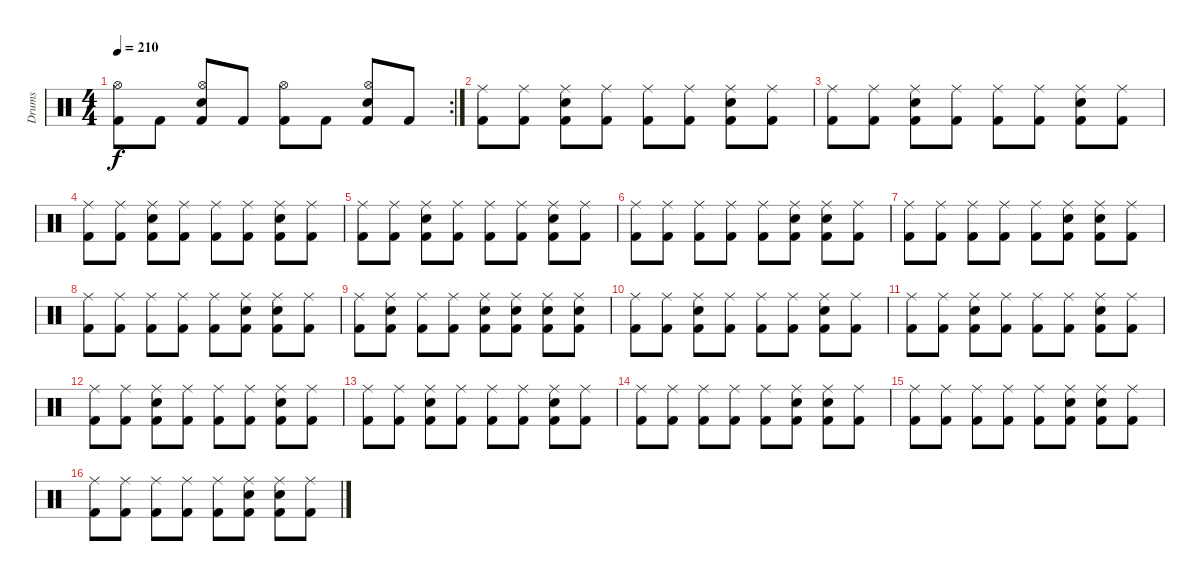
\track ("Drums" "Drums") {instrument percussion}
\staff {score}
\articulation defaults
\rc 2
\ts (4 4)
\tempo 210
\clef neutral
\ks c
("Kick (hit) 2" "Hi-Hat (open)").8{dy f} "Kick (hit) 2".8 ("Kick (hit) 2" "Snare (hit) 2" "Hi-Hat (open)").8 "Kick (hit) 2".8 ("Kick (hit) 2" "Hi-Hat (open)").8 "Kick (hit) 2".8 ("Kick (hit) 2" "Snare (hit) 2" "Hi-Hat (open)").8 "Kick (hit) 2".8 |
("Kick (hit) 2" "Ride (middle)").8 ("Kick (hit) 2" "Ride (middle)").8 ("Kick (hit) 2" "Snare (hit) 2" "Ride (middle)").8 ("Kick (hit) 2" "Ride (middle)").8 ("Kick (hit) 2" "Ride (middle)").8 ("Kick (hit) 2" "Ride (middle)").8 ("Kick (hit) 2" "Snare (hit) 2" "Ride (middle)").8 ("Kick (hit) 2" "Ride (middle)").8 |
("Kick (hit) 2" "Ride (middle)").8 ("Kick (hit) 2" "Ride (middle)").8 ("Kick (hit) 2" "Snare (hit) 2" "Ride (middle)").8 ("Kick (hit) 2" "Ride (middle)").8 ("Kick (hit) 2" "Ride (middle)").8 ("Kick (hit) 2" "Ride (middle)").8 ("Kick (hit) 2" "Snare (hit) 2" "Ride (middle)").8 ("Kick (hit) 2" "Ride (middle)").8 |
("Kick (hit) 2" "Ride (middle)").8 ("Kick (hit) 2" "Ride (middle)").8 ("Kick (hit) 2" "Snare (hit) 2" "Ride (middle)").8 ("Kick (hit) 2" "Ride (middle)").8 ("Kick (hit) 2" "Ride (middle)").8 ("Kick (hit) 2" "Ride (middle)").8 ("Kick (hit) 2" "Snare (hit) 2" "Ride (middle)").8 ("Kick (hit) 2" "Ride (middle)").8 |
("Kick (hit) 2" "Ride (middle)").8 ("Kick (hit) 2" "Ride (middle)").8 ("Kick (hit) 2" "Snare (hit) 2" "Ride (middle)").8 ("Kick (hit) 2" "Ride (middle)").8 ("Kick (hit) 2" "Ride (middle)").8 ("Kick (hit) 2" "Ride (middle)").8 ("Kick (hit) 2" "Snare (hit) 2" "Ride (middle)").8 ("Kick (hit) 2" "Ride (middle)").8 |
("Kick (hit) 2" "Ride (middle)").8 ("Kick (hit) 2" "Ride (middle)").8 ("Kick (hit) 2" "Ride (middle)").8 ("Kick (hit) 2" "Ride (middle)").8 ("Kick (hit) 2" "Ride (middle)").8 ("Kick (hit) 2" "Snare (hit) 2" "Ride (middle)").8 ("Kick (hit) 2" "Snare (hit) 2" "Ride (middle)").8 ("Kick (hit) 2" "Ride (middle)").8 |
("Kick (hit) 2" "Ride (middle)").8 ("Kick (hit) 2" "Ride (middle)").8 ("Kick (hit) 2" "Ride (middle)").8 ("Kick (hit) 2" "Ride (middle)").8 ("Kick (hit) 2" "Ride (middle)").8 ("Kick (hit) 2" "Snare (hit) 2" "Ride (middle)").8 ("Kick (hit) 2" "Snare (hit) 2" "Ride (middle)").8 ("Kick (hit) 2" "Ride (middle)").8 |
("Kick (hit) 2" "Ride (middle)").8 ("Kick (hit) 2" "Ride (middle)").8 ("Kick (hit) 2" "Ride (middle)").8 ("Kick (hit) 2" "Ride (middle)").8 ("Kick (hit) 2" "Ride (middle)").8 ("Kick (hit) 2" "Snare (hit) 2" "Ride (middle)").8 ("Kick (hit) 2" "Snare (hit) 2" "Ride (middle)").8 ("Kick (hit) 2" "Ride (middle)").8 |
("Kick (hit) 2" "Ride (middle)").8 ("Kick (hit) 2" "Snare (hit) 2" "Ride (middle)").8 ("Kick (hit) 2" "Ride (middle)").8 ("Kick (hit) 2" "Ride (middle)").8 ("Kick (hit) 2" "Snare (hit) 2" "Ride (middle)").8 ("Kick (hit) 2" "Snare (hit) 2" "Ride (middle)").8 ("Kick (hit) 2" "Snare (hit) 2" "Ride (middle)").8 ("Kick (hit) 2" "Snare (hit) 2" "Ride (middle)").8 |
("Kick (hit) 2" "Ride (middle)").8 ("Kick (hit) 2" "Ride (middle)").8 ("Kick (hit) 2" "Snare (hit) 2" "Ride (middle)").8 ("Kick (hit) 2" "Ride (middle)").8 ("Kick (hit) 2" "Ride (middle)").8 ("Kick (hit) 2" "Ride (middle)").8 ("Kick (hit) 2" "Snare (hit) 2" "Ride (middle)").8 ("Kick (hit) 2" "Ride (middle)").8 |
("Kick (hit) 2" "Ride (middle)").8 ("Kick (hit) 2" "Ride (middle)").8 ("Kick (hit) 2" "Snare (hit) 2" "Ride (middle)").8 ("Kick (hit) 2" "Ride (middle)").8 ("Kick (hit) 2" "Ride (middle)").8 ("Kick (hit) 2" "Ride (middle)").8 ("Kick (hit) 2" "Snare (hit) 2" "Ride (middle)").8 ("Kick (hit) 2" "Ride (middle)").8 |
("Kick (hit) 2" "Ride (middle)").8 ("Kick (hit) 2" "Ride (middle)").8 ("Kick (hit) 2" "Snare (hit) 2" "Ride (middle)").8 ("Kick (hit) 2" "Ride (middle)").8 ("Kick (hit) 2" "Ride (middle)").8 ("Kick (hit) 2" "Ride (middle)").8 ("Kick (hit) 2" "Snare (hit) 2" "Ride (middle)").8 ("Kick (hit) 2" "Ride (middle)").8 |
("Kick (hit) 2" "Ride (middle)").8 ("Kick (hit) 2" "Ride (middle)").8 ("Kick (hit) 2" "Snare (hit) 2" "Ride (middle)").8 ("Kick (hit) 2" "Ride (middle)").8 ("Kick (hit) 2" "Ride (middle)").8 ("Kick (hit) 2" "Ride (middle)").8 ("Kick (hit) 2" "Snare (hit) 2" "Ride (middle)").8 ("Kick (hit) 2" "Ride (middle)").8 |
("Kick (hit) 2" "Ride (middle)").8 ("Kick (hit) 2" "Ride (middle)").8 ("Kick (hit) 2" "Ride (middle)").8 ("Kick (hit) 2" "Ride (middle)").8 ("Kick (hit) 2" "Ride (middle)").8 ("Kick (hit) 2" "Snare (hit) 2" "Ride (middle)").8 ("Kick (hit) 2" "Snare (hit) 2" "Ride (middle)").8 ("Kick (hit) 2" "Ride (middle)").8 |
("Kick (hit) 2" "Ride (middle)").8 ("Kick (hit) 2" "Ride (middle)").8 ("Kick (hit) 2" "Ride (middle)").8 ("Kick (hit) 2" "Ride (middle)").8 ("Kick (hit) 2" "Ride (middle)").8 ("Kick (hit) 2" "Snare (hit) 2" "Ride (middle)").8 ("Kick (hit) 2" "Snare (hit) 2" "Ride (middle)").8 ("Kick (hit) 2" "Ride (middle)").8 |
("Kick (hit) 2" "Ride (middle)").8 ("Kick (hit) 2" "Ride (middle)").8 ("Kick (hit) 2" "Ride (middle)").8 ("Kick (hit) 2" "Ride (middle)").8 ("Kick (hit) 2" "Ride (middle)").8 ("Kick (hit) 2" "Snare (hit) 2" "Ride (middle)").8 ("Kick (hit) 2" "Snare (hit) 2" "Ride (middle)").8 ("Kick (hit) 2" "Ride (middle)").8
